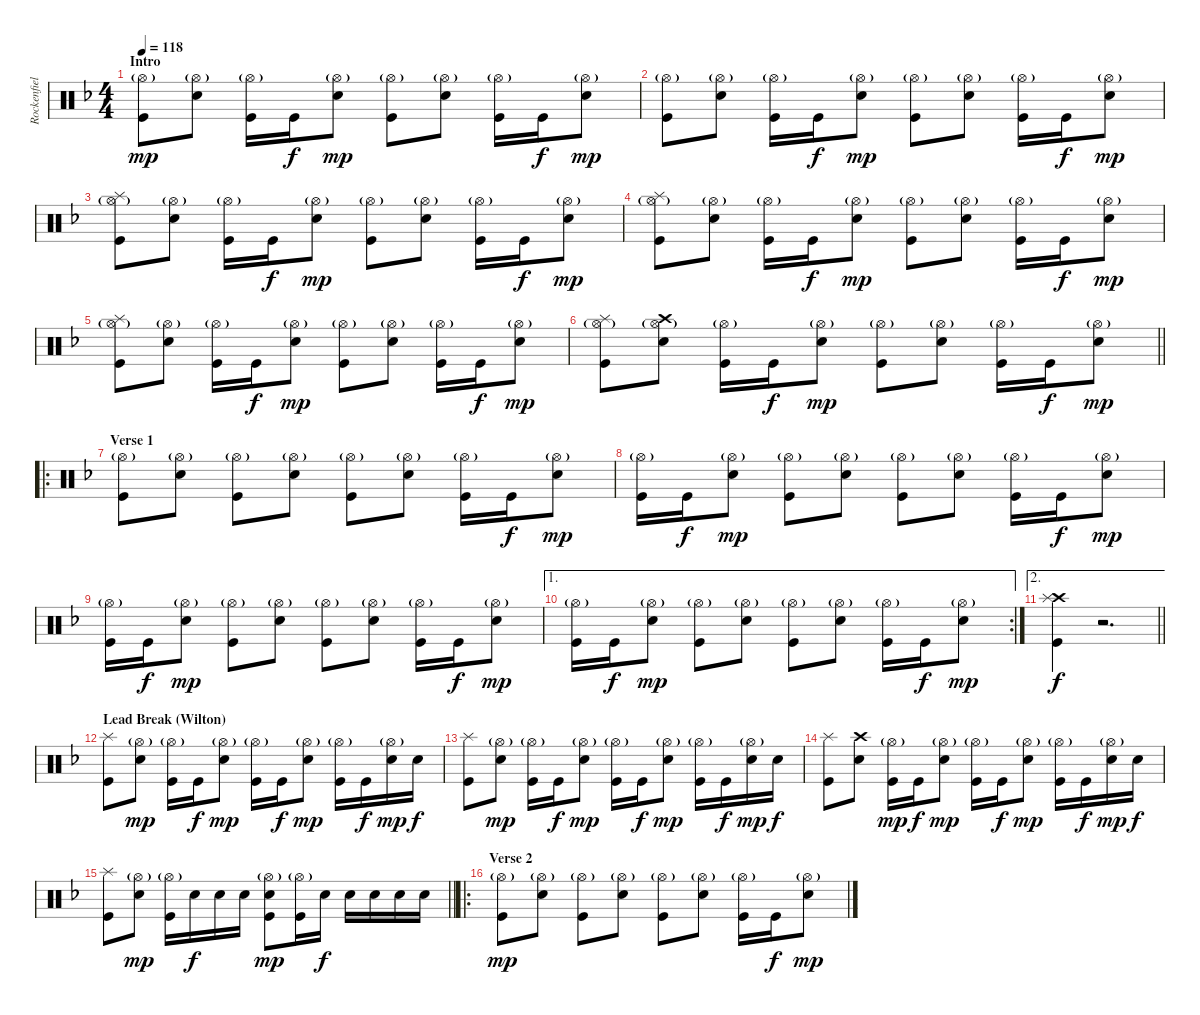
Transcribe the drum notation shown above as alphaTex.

\track ("Rockenfield" "Rockenfiel") {instrument percussion}
\staff {score}
\articulation defaults
\ts (4 4)
\section ("" "Intro")
\tempo 118
\clef neutral
\ks dminor
("Hi-Hat (open)"{g} "Kick (hit)").8{dy mp} ("Hi-Hat (open)"{g} "Snare (hit) 2").8 ("Hi-Hat (open)"{g} "Kick (hit)").16 "Kick (hit)".16{dy f} ("Hi-Hat (open)"{g} "Snare (hit) 2").8{dy mp} ("Hi-Hat (open)"{g} "Kick (hit)").8 ("Hi-Hat (open)"{g} "Snare (hit) 2").8 ("Hi-Hat (open)"{g} "Kick (hit)").16 "Kick (hit)".16{dy f} ("Hi-Hat (open)"{g} "Snare (hit) 2").8{dy mp} |
("Hi-Hat (open)"{g} "Kick (hit)").8 ("Hi-Hat (open)"{g} "Snare (hit) 2").8 ("Hi-Hat (open)"{g} "Kick (hit)").16 "Kick (hit)".16{dy f} ("Hi-Hat (open)"{g} "Snare (hit) 2").8{dy mp} ("Hi-Hat (open)"{g} "Kick (hit)").8 ("Hi-Hat (open)"{g} "Snare (hit) 2").8 ("Hi-Hat (open)"{g} "Kick (hit)").16 "Kick (hit)".16{dy f} ("Hi-Hat (open)"{g} "Snare (hit) 2").8{dy mp} |
("Splash (hit)" "Hi-Hat (open)"{g} "Kick (hit)").8 ("Hi-Hat (open)"{g} "Snare (hit) 2").8 ("Hi-Hat (open)"{g} "Kick (hit)").16 "Kick (hit)".16{dy f} ("Hi-Hat (open)"{g} "Snare (hit) 2").8{dy mp} ("Hi-Hat (open)"{g} "Kick (hit)").8 ("Hi-Hat (open)"{g} "Snare (hit) 2").8 ("Hi-Hat (open)"{g} "Kick (hit)").16 "Kick (hit)".16{dy f} ("Hi-Hat (open)"{g} "Snare (hit) 2").8{dy mp} |
("Splash (hit)" "Hi-Hat (open)"{g} "Kick (hit)").8 ("Hi-Hat (open)"{g} "Snare (hit) 2").8 ("Hi-Hat (open)"{g} "Kick (hit)").16 "Kick (hit)".16{dy f} ("Hi-Hat (open)"{g} "Snare (hit) 2").8{dy mp} ("Hi-Hat (open)"{g} "Kick (hit)").8 ("Hi-Hat (open)"{g} "Snare (hit) 2").8 ("Hi-Hat (open)"{g} "Kick (hit)").16 "Kick (hit)".16{dy f} ("Hi-Hat (open)"{g} "Snare (hit) 2").8{dy mp} |
("Splash (hit)" "Hi-Hat (open)"{g} "Kick (hit)").8 ("Hi-Hat (open)"{g} "Snare (hit) 2").8 ("Hi-Hat (open)"{g} "Kick (hit)").16 "Kick (hit)".16{dy f} ("Hi-Hat (open)"{g} "Snare (hit) 2").8{dy mp} ("Hi-Hat (open)"{g} "Kick (hit)").8 ("Hi-Hat (open)"{g} "Snare (hit) 2").8 ("Hi-Hat (open)"{g} "Kick (hit)").16 "Kick (hit)".16{dy f} ("Hi-Hat (open)"{g} "Snare (hit) 2").8{dy mp} |
\barLineRight lightlight
("Splash (hit)" "Hi-Hat (open)"{g} "Kick (hit)").8 ("Crash high (hit)" "Hi-Hat (open)"{g} "Snare (hit) 2").8 ("Hi-Hat (open)"{g} "Kick (hit)").16 "Kick (hit)".16{dy f} ("Hi-Hat (open)"{g} "Snare (hit) 2").8{dy mp} ("Hi-Hat (open)"{g} "Kick (hit)").8 ("Hi-Hat (open)"{g} "Snare (hit) 2").8 ("Hi-Hat (open)"{g} "Kick (hit)").16 "Kick (hit)".16{dy f} ("Hi-Hat (open)"{g} "Snare (hit) 2").8{dy mp} |
\ro
\section ("" "Verse 1")
("Hi-Hat (open)"{g} "Kick (hit)").8 ("Hi-Hat (open)"{g} "Snare (hit) 2").8 ("Hi-Hat (open)"{g} "Kick (hit)").8 ("Hi-Hat (open)"{g} "Snare (hit) 2").8 ("Hi-Hat (open)"{g} "Kick (hit)").8 ("Hi-Hat (open)"{g} "Snare (hit) 2").8 ("Hi-Hat (open)"{g} "Kick (hit)").16 "Kick (hit)".16{dy f} ("Hi-Hat (open)"{g} "Snare (hit) 2").8{dy mp} |
("Hi-Hat (open)"{g} "Kick (hit)").16 "Kick (hit)".16{dy f} ("Hi-Hat (open)"{g} "Snare (hit) 2").8{dy mp} ("Hi-Hat (open)"{g} "Kick (hit)").8 ("Hi-Hat (open)"{g} "Snare (hit) 2").8 ("Hi-Hat (open)"{g} "Kick (hit)").8 ("Hi-Hat (open)"{g} "Snare (hit) 2").8 ("Hi-Hat (open)"{g} "Kick (hit)").16 "Kick (hit)".16{dy f} ("Hi-Hat (open)"{g} "Snare (hit) 2").8{dy mp} |
("Hi-Hat (open)"{g} "Kick (hit)").16 "Kick (hit)".16{dy f} ("Hi-Hat (open)"{g} "Snare (hit) 2").8{dy mp} ("Hi-Hat (open)"{g} "Kick (hit)").8 ("Hi-Hat (open)"{g} "Snare (hit) 2").8 ("Hi-Hat (open)"{g} "Kick (hit)").8 ("Hi-Hat (open)"{g} "Snare (hit) 2").8 ("Hi-Hat (open)"{g} "Kick (hit)").16 "Kick (hit)".16{dy f} ("Hi-Hat (open)"{g} "Snare (hit) 2").8{dy mp} |
\ae 1
\rc 2
("Hi-Hat (open)"{g} "Kick (hit)").16 "Kick (hit)".16{dy f} ("Hi-Hat (open)"{g} "Snare (hit) 2").8{dy mp} ("Hi-Hat (open)"{g} "Kick (hit)").8 ("Hi-Hat (open)"{g} "Snare (hit) 2").8 ("Hi-Hat (open)"{g} "Kick (hit)").8 ("Hi-Hat (open)"{g} "Snare (hit) 2").8 ("Hi-Hat (open)"{g} "Kick (hit)").16 "Kick (hit)".16{dy f} ("Hi-Hat (open)"{g} "Snare (hit) 2").8{dy mp} |
\ae 2
\barLineRight lightlight
("Crash high (hit)" "Splash (hit)" "Kick (hit)").4{dy f} r.2{d} |
\section ("" "Lead Break (Wilton)")
\ks f
("Splash (hit)" "Kick (hit)").8 ("Hi-Hat (open)"{g} "Snare (hit) 2").8{dy mp} ("Hi-Hat (open)"{g} "Kick (hit)").16 "Kick (hit)".16{dy f} ("Hi-Hat (open)"{g} "Snare (hit) 2").8{dy mp} ("Hi-Hat (open)"{g} "Kick (hit)").16 "Kick (hit)".16{dy f} ("Hi-Hat (open)"{g} "Snare (hit) 2").8{dy mp} ("Hi-Hat (open)"{g} "Kick (hit)").16 "Kick (hit)".16{dy f} ("Hi-Hat (open)"{g} "Snare (hit) 2").16{dy mp} "Snare (hit) 2".16{dy f} |
("Splash (hit)" "Kick (hit)").8 ("Hi-Hat (open)"{g} "Snare (hit) 2").8{dy mp} ("Hi-Hat (open)"{g} "Kick (hit)").16 "Kick (hit)".16{dy f} ("Hi-Hat (open)"{g} "Snare (hit) 2").8{dy mp} ("Hi-Hat (open)"{g} "Kick (hit)").16 "Kick (hit)".16{dy f} ("Hi-Hat (open)"{g} "Snare (hit) 2").8{dy mp} ("Hi-Hat (open)"{g} "Kick (hit)").16 "Kick (hit)".16{dy f} ("Hi-Hat (open)"{g} "Snare (hit) 2").16{dy mp} "Snare (hit) 2".16{dy f} |
("Splash (hit)" "Kick (hit)").8 ("Crash high (hit)" "Snare (hit) 2").8 ("Hi-Hat (open)"{g} "Kick (hit)").16{dy mp} "Kick (hit)".16{dy f} ("Hi-Hat (open)"{g} "Snare (hit) 2").8{dy mp} ("Hi-Hat (open)"{g} "Kick (hit)").16 "Kick (hit)".16{dy f} ("Hi-Hat (open)"{g} "Snare (hit) 2").8{dy mp} ("Hi-Hat (open)"{g} "Kick (hit)").16 "Kick (hit)".16{dy f} ("Hi-Hat (open)"{g} "Snare (hit) 2").16{dy mp} "Snare (hit) 2".16{dy f} |
\barLineRight lightlight
("Splash (hit)" "Kick (hit)").8 ("Hi-Hat (open)"{g} "Snare (hit) 2").8{dy mp} ("Hi-Hat (open)"{g} "Kick (hit)").16 "Snare (hit) 2".16{dy f} "Snare (hit) 2".16 "Snare (hit) 2".16 ("Hi-Hat (open)"{g} "Snare (hit) 2" "Kick (hit)").8{dy mp} ("Hi-Hat (open)"{g} "Kick (hit)").16 "Snare (hit) 2".16{dy f} "Snare (hit) 2".16 "Snare (hit) 2".16 "Snare (hit) 2".16 "Snare (hit) 2".16 |
\ro
\section ("" "Verse 2")
("Hi-Hat (open)"{g} "Kick (hit)").8{dy mp} ("Hi-Hat (open)"{g} "Snare (hit) 2").8 ("Hi-Hat (open)"{g} "Kick (hit)").8 ("Hi-Hat (open)"{g} "Snare (hit) 2").8 ("Hi-Hat (open)"{g} "Kick (hit)").8 ("Hi-Hat (open)"{g} "Snare (hit) 2").8 ("Hi-Hat (open)"{g} "Kick (hit)").16 "Kick (hit)".16{dy f} ("Hi-Hat (open)"{g} "Snare (hit) 2").8{dy mp}
